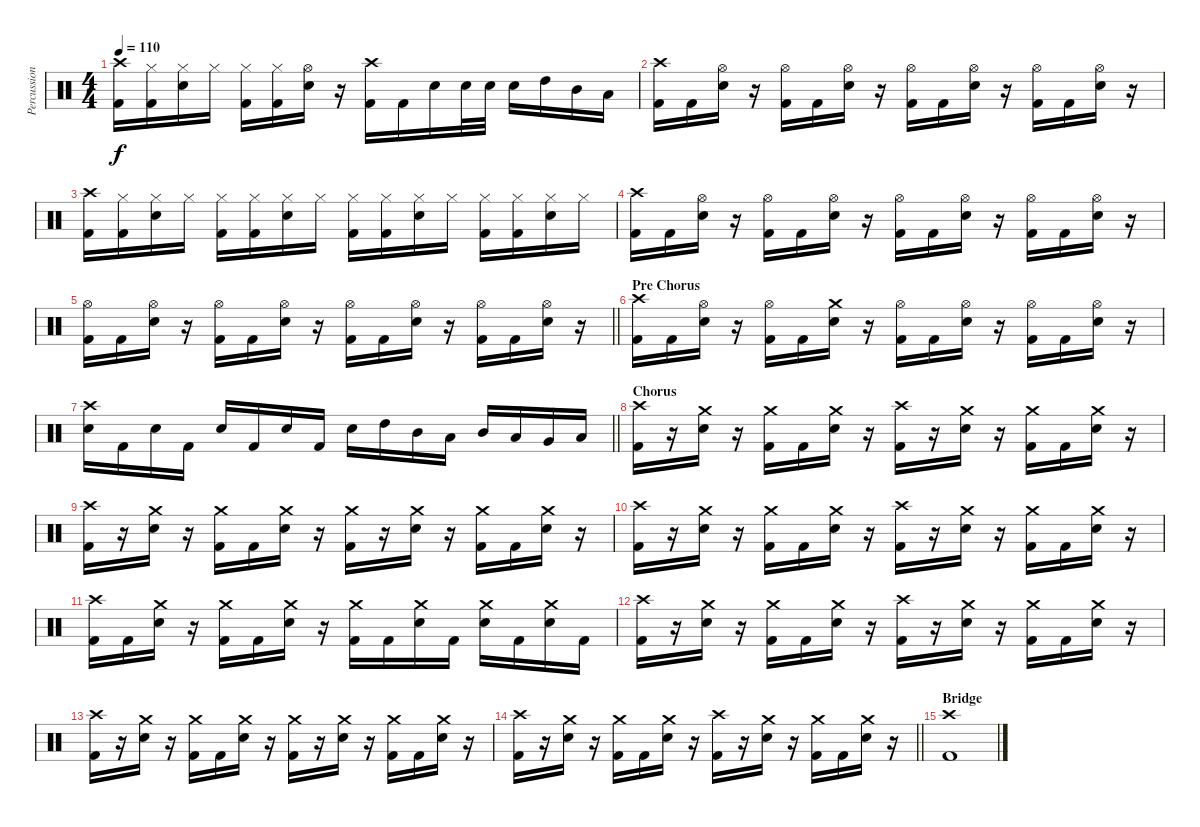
\track ("Percussion" "Percussion") {instrument percussion}
\staff {score}
\articulation defaults
\ts (4 4)
\tempo 110
\clef neutral
\ks c
("Crash high (hit)" "Kick (hit) 2").16{dy f} ("Hi-Hat (closed)" "Kick (hit) 2").16 ("Hi-Hat (closed)" "Electric Snare (hit)").16 "Hi-Hat (closed)".16 ("Hi-Hat (closed)" "Kick (hit) 2").16 ("Hi-Hat (closed)" "Kick (hit) 2").16 ("Hi-Hat (open)" "Electric Snare (hit)").16 r.16 ("Crash high (hit)" "Kick (hit) 2").16 "Kick (hit) 2".16 "Electric Snare (hit)".16 "Electric Snare (hit)".32 "Electric Snare (hit)".32 "Electric Snare (hit)".16 "High Tom (hit)".16 "Mid Tom (hit)".16 "Low Tom (hit)".16 |
("Crash high (hit)" "Kick (hit) 2").16 "Kick (hit) 2".16 ("Hi-Hat (open)" "Electric Snare (hit)").16 r.16 ("Hi-Hat (open)" "Kick (hit) 2").16 "Kick (hit) 2".16 ("Hi-Hat (open)" "Electric Snare (hit)").16 r.16 ("Hi-Hat (open)" "Kick (hit) 2").16 "Kick (hit) 2".16 ("Hi-Hat (open)" "Electric Snare (hit)").16 r.16 ("Hi-Hat (open)" "Kick (hit) 2").16 "Kick (hit) 2".16 ("Hi-Hat (open)" "Electric Snare (hit)").16 r.16 |
("Crash high (hit)" "Kick (hit) 2").16 ("Hi-Hat (closed)" "Kick (hit) 2").16 ("Hi-Hat (closed)" "Electric Snare (hit)").16 "Hi-Hat (closed)".16 ("Hi-Hat (closed)" "Kick (hit) 2").16 ("Hi-Hat (closed)" "Kick (hit) 2").16 ("Hi-Hat (closed)" "Electric Snare (hit)").16 "Hi-Hat (closed)".16 ("Hi-Hat (closed)" "Kick (hit) 2").16 ("Hi-Hat (closed)" "Kick (hit) 2").16 ("Hi-Hat (closed)" "Electric Snare (hit)").16 "Hi-Hat (closed)".16 ("Hi-Hat (closed)" "Kick (hit) 2").16 ("Hi-Hat (closed)" "Kick (hit) 2").16 ("Hi-Hat (closed)" "Electric Snare (hit)").16 "Hi-Hat (closed)".16 |
("Crash high (hit)" "Kick (hit) 2").16 "Kick (hit) 2".16 ("Hi-Hat (open)" "Electric Snare (hit)").16 r.16 ("Hi-Hat (open)" "Kick (hit) 2").16 "Kick (hit) 2".16 ("Hi-Hat (open)" "Electric Snare (hit)").16 r.16 ("Hi-Hat (open)" "Kick (hit) 2").16 "Kick (hit) 2".16 ("Hi-Hat (open)" "Electric Snare (hit)").16 r.16 ("Hi-Hat (open)" "Kick (hit) 2").16 "Kick (hit) 2".16 ("Hi-Hat (open)" "Electric Snare (hit)").16 r.16 |
\barLineRight lightlight
("Hi-Hat (open)" "Kick (hit) 2").16 "Kick (hit) 2".16 ("Hi-Hat (open)" "Electric Snare (hit)").16 r.16 ("Hi-Hat (open)" "Kick (hit) 2").16 "Kick (hit) 2".16 ("Hi-Hat (open)" "Electric Snare (hit)").16 r.16 ("Hi-Hat (open)" "Kick (hit) 2").16 "Kick (hit) 2".16 ("Hi-Hat (open)" "Electric Snare (hit)").16 r.16 ("Hi-Hat (open)" "Kick (hit) 2").16 "Kick (hit) 2".16 ("Hi-Hat (open)" "Electric Snare (hit)").16 r.16 |
\section ("" "Pre Chorus")
("Crash high (hit)" "Kick (hit) 2").16 "Kick (hit) 2".16 ("Hi-Hat (open)" "Electric Snare (hit)").16 r.16 ("Hi-Hat (open)" "Kick (hit) 2").16 "Kick (hit) 2".16 ("Crash medium (hit)" "Electric Snare (hit)").16 r.16 ("Hi-Hat (open)" "Kick (hit) 2").16 "Kick (hit) 2".16 ("Hi-Hat (open)" "Electric Snare (hit)").16 r.16 ("Hi-Hat (open)" "Kick (hit) 2").16 "Kick (hit) 2".16 ("Hi-Hat (open)" "Electric Snare (hit)").16 r.16 |
\barLineRight lightlight
("Crash high (hit)" "Electric Snare (hit)").16 "Kick (hit) 2".16 "Electric Snare (hit)".16 "Kick (hit) 2".16 "Electric Snare (hit)".16 "Kick (hit) 2".16 "Electric Snare (hit)".16 "Kick (hit) 2".16 "Electric Snare (hit)".16 "High Tom (hit)".16 "Mid Tom (hit)".16 "Low Tom (hit)".16 "Mid Tom (hit)".16 "Low Tom (hit)".16 "Very Low Tom (hit)".16 "Low Floor Tom (hit)".16 |
\section ("" "Chorus")
("Crash high (hit)" "Kick (hit) 2").16 r.16 ("Crash medium (hit)" "Electric Snare (hit)").16 r.16 ("Crash medium (hit)" "Kick (hit) 2").16 "Kick (hit) 2".16 ("Crash medium (hit)" "Electric Snare (hit)").16 r.16 ("Crash high (hit)" "Kick (hit) 2").16 r.16 ("Crash medium (hit)" "Electric Snare (hit)").16 r.16 ("Crash medium (hit)" "Kick (hit) 2").16 "Kick (hit) 2".16 ("Crash medium (hit)" "Electric Snare (hit)").16 r.16 |
("Crash high (hit)" "Kick (hit) 2").16 r.16 ("Crash medium (hit)" "Electric Snare (hit)").16 r.16 ("Crash medium (hit)" "Kick (hit) 2").16 "Kick (hit) 2".16 ("Crash medium (hit)" "Electric Snare (hit)").16 r.16 ("Crash medium (hit)" "Kick (hit) 2").16 r.16 ("Crash medium (hit)" "Electric Snare (hit)").16 r.16 ("Crash medium (hit)" "Kick (hit) 2").16 "Kick (hit) 2".16 ("Crash medium (hit)" "Electric Snare (hit)").16 r.16 |
("Crash high (hit)" "Kick (hit) 2").16 r.16 ("Crash medium (hit)" "Electric Snare (hit)").16 r.16 ("Crash medium (hit)" "Kick (hit) 2").16 "Kick (hit) 2".16 ("Crash medium (hit)" "Electric Snare (hit)").16 r.16 ("Crash high (hit)" "Kick (hit) 2").16 r.16 ("Crash medium (hit)" "Electric Snare (hit)").16 r.16 ("Crash medium (hit)" "Kick (hit) 2").16 "Kick (hit) 2".16 ("Crash medium (hit)" "Electric Snare (hit)").16 r.16 |
("Crash high (hit)" "Kick (hit) 2").16 "Kick (hit) 2".16 ("Crash medium (hit)" "Electric Snare (hit)").16 r.16 ("Crash medium (hit)" "Kick (hit) 2").16 "Kick (hit) 2".16 ("Crash medium (hit)" "Electric Snare (hit)").16 r.16 ("Crash medium (hit)" "Kick (hit) 2").16 "Kick (hit) 2".16 ("Crash medium (hit)" "Electric Snare (hit)").16 "Kick (hit) 2".16 ("Crash medium (hit)" "Electric Snare (hit)").16 "Kick (hit) 2".16 ("Crash medium (hit)" "Electric Snare (hit)").16 "Kick (hit) 2".16 |
("Crash high (hit)" "Kick (hit) 2").16 r.16 ("Crash medium (hit)" "Electric Snare (hit)").16 r.16 ("Crash medium (hit)" "Kick (hit) 2").16 "Kick (hit) 2".16 ("Crash medium (hit)" "Electric Snare (hit)").16 r.16 ("Crash high (hit)" "Kick (hit) 2").16 r.16 ("Crash medium (hit)" "Electric Snare (hit)").16 r.16 ("Crash medium (hit)" "Kick (hit) 2").16 "Kick (hit) 2".16 ("Crash medium (hit)" "Electric Snare (hit)").16 r.16 |
("Crash high (hit)" "Kick (hit) 2").16 r.16 ("Crash medium (hit)" "Electric Snare (hit)").16 r.16 ("Crash medium (hit)" "Kick (hit) 2").16 "Kick (hit) 2".16 ("Crash medium (hit)" "Electric Snare (hit)").16 r.16 ("Crash medium (hit)" "Kick (hit) 2").16 r.16 ("Crash medium (hit)" "Electric Snare (hit)").16 r.16 ("Crash medium (hit)" "Kick (hit) 2").16 "Kick (hit) 2".16 ("Crash medium (hit)" "Electric Snare (hit)").16 r.16 |
\barLineRight lightlight
("Crash high (hit)" "Kick (hit) 2").16 r.16 ("Crash medium (hit)" "Electric Snare (hit)").16 r.16 ("Crash medium (hit)" "Kick (hit) 2").16 "Kick (hit) 2".16 ("Crash medium (hit)" "Electric Snare (hit)").16 r.16 ("Crash high (hit)" "Kick (hit) 2").16 r.16 ("Crash medium (hit)" "Electric Snare (hit)").16 r.16 ("Crash medium (hit)" "Kick (hit) 2").16 "Kick (hit) 2".16 ("Crash medium (hit)" "Electric Snare (hit)").16 r.16 |
\section ("" "Bridge")
("Crash high (hit)" "Kick (hit) 2").1
